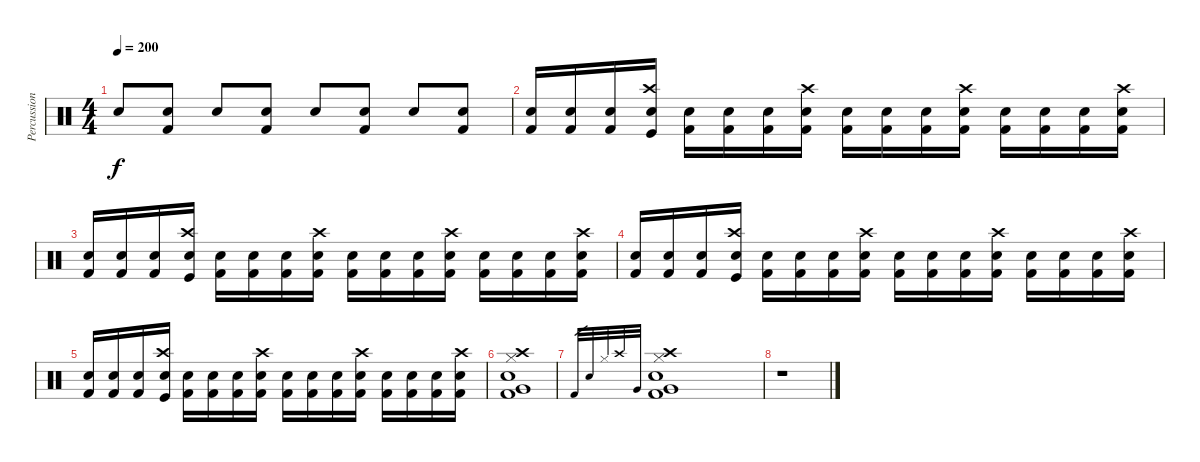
\track ("Percussion" "Percussion") {instrument percussion}
\staff {score}
\articulation defaults
\ts (4 4)
\tempo 200
\clef neutral
\ks c "Electric Snare (hit)".8{dy f}
("Kick (hit) 2" "Snare (hit) 2").8 "Electric Snare (hit)".8 ("Kick (hit) 2" "Snare (hit) 2").8 "Electric Snare (hit)".8 ("Snare (hit) 2" "Kick (hit) 2").8 "Electric Snare (hit)".8 ("Snare (hit) 2" "Kick (hit) 2").8 |
("Kick (hit) 2" "Snare (hit) 2").16 ("Snare (hit) 2" "Kick (hit) 2").16 ("Kick (hit) 2" "Snare (hit) 2").16 ("Crash high (hit)" "Kick (hit)" "Snare (hit) 2").16 ("Snare (hit) 2" "Kick (hit) 2").16 ("Kick (hit) 2" "Snare (hit) 2").16 ("Kick (hit) 2" "Snare (hit) 2").16 ("Kick (hit) 2" "Snare (hit) 2" "Crash high (hit)").16 ("Kick (hit) 2" "Snare (hit) 2").16 ("Snare (hit) 2" "Kick (hit) 2").16 ("Kick (hit) 2" "Snare (hit) 2").16 ("Kick (hit) 2" "Snare (hit) 2" "Crash high (hit)").16 ("Kick (hit) 2" "Snare (hit) 2").16 ("Snare (hit) 2" "Kick (hit) 2").16 ("Kick (hit) 2" "Snare (hit) 2").16 ("Kick (hit) 2" "Crash high (hit)" "Snare (hit) 2").16 |
("Kick (hit) 2" "Snare (hit) 2").16 ("Snare (hit) 2" "Kick (hit) 2").16 ("Kick (hit) 2" "Snare (hit) 2").16 ("Crash high (hit)" "Kick (hit)" "Snare (hit) 2").16 ("Snare (hit) 2" "Kick (hit) 2").16 ("Kick (hit) 2" "Snare (hit) 2").16 ("Kick (hit) 2" "Snare (hit) 2").16 ("Kick (hit) 2" "Snare (hit) 2" "Crash high (hit)").16 ("Kick (hit) 2" "Snare (hit) 2").16 ("Snare (hit) 2" "Kick (hit) 2").16 ("Kick (hit) 2" "Snare (hit) 2").16 ("Kick (hit) 2" "Snare (hit) 2" "Crash high (hit)").16 ("Kick (hit) 2" "Snare (hit) 2").16 ("Snare (hit) 2" "Kick (hit) 2").16 ("Kick (hit) 2" "Snare (hit) 2").16 ("Kick (hit) 2" "Crash high (hit)" "Snare (hit) 2").16 |
("Kick (hit) 2" "Snare (hit) 2").16 ("Snare (hit) 2" "Kick (hit) 2").16 ("Kick (hit) 2" "Snare (hit) 2").16 ("Crash high (hit)" "Kick (hit)" "Snare (hit) 2").16 ("Snare (hit) 2" "Kick (hit) 2").16 ("Kick (hit) 2" "Snare (hit) 2").16 ("Kick (hit) 2" "Snare (hit) 2").16 ("Kick (hit) 2" "Snare (hit) 2" "Crash high (hit)").16 ("Kick (hit) 2" "Snare (hit) 2").16 ("Snare (hit) 2" "Kick (hit) 2").16 ("Kick (hit) 2" "Snare (hit) 2").16 ("Kick (hit) 2" "Snare (hit) 2" "Crash high (hit)").16 ("Kick (hit) 2" "Snare (hit) 2").16 ("Snare (hit) 2" "Kick (hit) 2").16 ("Kick (hit) 2" "Snare (hit) 2").16 ("Kick (hit) 2" "Crash high (hit)" "Snare (hit) 2").16 |
("Kick (hit) 2" "Snare (hit) 2").16 ("Snare (hit) 2" "Kick (hit) 2").16 ("Kick (hit) 2" "Snare (hit) 2").16 ("Crash high (hit)" "Kick (hit)" "Snare (hit) 2").16 ("Snare (hit) 2" "Kick (hit) 2").16 ("Kick (hit) 2" "Snare (hit) 2").16 ("Kick (hit) 2" "Snare (hit) 2").16 ("Kick (hit) 2" "Snare (hit) 2" "Crash high (hit)").16 ("Kick (hit) 2" "Snare (hit) 2").16 ("Snare (hit) 2" "Kick (hit) 2").16 ("Kick (hit) 2" "Snare (hit) 2").16 ("Kick (hit) 2" "Snare (hit) 2" "Crash high (hit)").16 ("Kick (hit) 2" "Snare (hit) 2").16 ("Snare (hit) 2" "Kick (hit) 2").16 ("Kick (hit) 2" "Snare (hit) 2").16 ("Kick (hit) 2" "Crash high (hit)" "Snare (hit) 2").16 |
("Crash high (hit)" "Hi-Hat (closed)" "Snare (hit) 2" "Kick (hit) 2" "Very Low Tom (hit)").1 |
"Kick (hit) 2".32{gr} "Snare (hit) 2".32{gr} "Hi-Hat (closed)".32{gr} "Crash high (hit)".32{gr} "Very Low Tom (hit)".32{gr} ("Kick (hit) 2" "Snare (hit) 2" "Hi-Hat (closed)" "Crash high (hit)" "Very Low Tom (hit)").1 |
r.1
